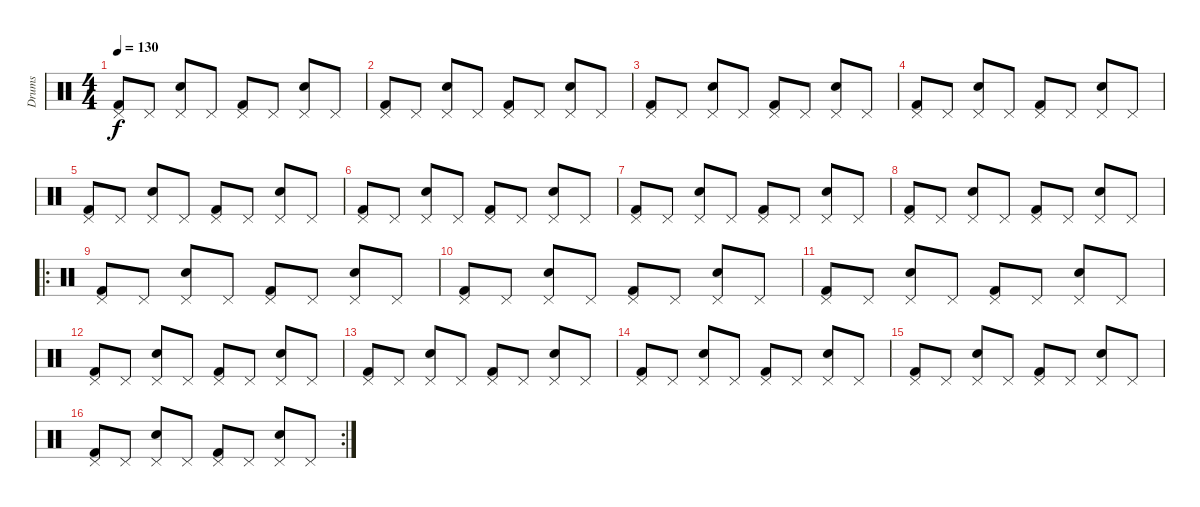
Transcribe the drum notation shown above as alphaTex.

\track ("Drums" "Drums") {instrument percussion}
\staff {score}
\articulation defaults
\ts (4 4)
\tempo 130
\clef neutral
\ks c
("Pedal Hi-Hat (hit)" "Kick (hit) 2").8{dy f} "Pedal Hi-Hat (hit)".8 ("Pedal Hi-Hat (hit)" "Snare (hit) 2").8 "Pedal Hi-Hat (hit)".8 ("Pedal Hi-Hat (hit)" "Kick (hit) 2").8 "Pedal Hi-Hat (hit)".8 ("Pedal Hi-Hat (hit)" "Snare (hit) 2").8 "Pedal Hi-Hat (hit)".8 |
("Pedal Hi-Hat (hit)" "Kick (hit) 2").8 "Pedal Hi-Hat (hit)".8 ("Pedal Hi-Hat (hit)" "Snare (hit) 2").8 "Pedal Hi-Hat (hit)".8 ("Pedal Hi-Hat (hit)" "Kick (hit) 2").8 "Pedal Hi-Hat (hit)".8 ("Pedal Hi-Hat (hit)" "Snare (hit) 2").8 "Pedal Hi-Hat (hit)".8 |
("Pedal Hi-Hat (hit)" "Kick (hit) 2").8 "Pedal Hi-Hat (hit)".8 ("Pedal Hi-Hat (hit)" "Snare (hit) 2").8 "Pedal Hi-Hat (hit)".8 ("Pedal Hi-Hat (hit)" "Kick (hit) 2").8 "Pedal Hi-Hat (hit)".8 ("Pedal Hi-Hat (hit)" "Snare (hit) 2").8 "Pedal Hi-Hat (hit)".8 |
("Pedal Hi-Hat (hit)" "Kick (hit) 2").8 "Pedal Hi-Hat (hit)".8 ("Pedal Hi-Hat (hit)" "Snare (hit) 2").8 "Pedal Hi-Hat (hit)".8 ("Pedal Hi-Hat (hit)" "Kick (hit) 2").8 "Pedal Hi-Hat (hit)".8 ("Pedal Hi-Hat (hit)" "Snare (hit) 2").8 "Pedal Hi-Hat (hit)".8 |
("Pedal Hi-Hat (hit)" "Kick (hit) 2").8 "Pedal Hi-Hat (hit)".8 ("Pedal Hi-Hat (hit)" "Snare (hit) 2").8 "Pedal Hi-Hat (hit)".8 ("Pedal Hi-Hat (hit)" "Kick (hit) 2").8 "Pedal Hi-Hat (hit)".8 ("Pedal Hi-Hat (hit)" "Snare (hit) 2").8 "Pedal Hi-Hat (hit)".8 |
("Pedal Hi-Hat (hit)" "Kick (hit) 2").8 "Pedal Hi-Hat (hit)".8 ("Pedal Hi-Hat (hit)" "Snare (hit) 2").8 "Pedal Hi-Hat (hit)".8 ("Pedal Hi-Hat (hit)" "Kick (hit) 2").8 "Pedal Hi-Hat (hit)".8 ("Pedal Hi-Hat (hit)" "Snare (hit) 2").8 "Pedal Hi-Hat (hit)".8 |
("Pedal Hi-Hat (hit)" "Kick (hit) 2").8 "Pedal Hi-Hat (hit)".8 ("Pedal Hi-Hat (hit)" "Snare (hit) 2").8 "Pedal Hi-Hat (hit)".8 ("Pedal Hi-Hat (hit)" "Kick (hit) 2").8 "Pedal Hi-Hat (hit)".8 ("Pedal Hi-Hat (hit)" "Snare (hit) 2").8 "Pedal Hi-Hat (hit)".8 |
("Pedal Hi-Hat (hit)" "Kick (hit) 2").8 "Pedal Hi-Hat (hit)".8 ("Pedal Hi-Hat (hit)" "Snare (hit) 2").8 "Pedal Hi-Hat (hit)".8 ("Pedal Hi-Hat (hit)" "Kick (hit) 2").8 "Pedal Hi-Hat (hit)".8 ("Pedal Hi-Hat (hit)" "Snare (hit) 2").8 "Pedal Hi-Hat (hit)".8 |
\ro
("Pedal Hi-Hat (hit)" "Kick (hit) 2").8 "Pedal Hi-Hat (hit)".8 ("Pedal Hi-Hat (hit)" "Snare (hit) 2").8 "Pedal Hi-Hat (hit)".8 ("Pedal Hi-Hat (hit)" "Kick (hit) 2").8 "Pedal Hi-Hat (hit)".8 ("Pedal Hi-Hat (hit)" "Snare (hit) 2").8 "Pedal Hi-Hat (hit)".8 |
("Pedal Hi-Hat (hit)" "Kick (hit) 2").8 "Pedal Hi-Hat (hit)".8 ("Pedal Hi-Hat (hit)" "Snare (hit) 2").8 "Pedal Hi-Hat (hit)".8 ("Pedal Hi-Hat (hit)" "Kick (hit) 2").8 "Pedal Hi-Hat (hit)".8 ("Pedal Hi-Hat (hit)" "Snare (hit) 2").8 "Pedal Hi-Hat (hit)".8 |
("Pedal Hi-Hat (hit)" "Kick (hit) 2").8 "Pedal Hi-Hat (hit)".8 ("Pedal Hi-Hat (hit)" "Snare (hit) 2").8 "Pedal Hi-Hat (hit)".8 ("Pedal Hi-Hat (hit)" "Kick (hit) 2").8 "Pedal Hi-Hat (hit)".8 ("Pedal Hi-Hat (hit)" "Snare (hit) 2").8 "Pedal Hi-Hat (hit)".8 |
("Pedal Hi-Hat (hit)" "Kick (hit) 2").8 "Pedal Hi-Hat (hit)".8 ("Pedal Hi-Hat (hit)" "Snare (hit) 2").8 "Pedal Hi-Hat (hit)".8 ("Pedal Hi-Hat (hit)" "Kick (hit) 2").8 "Pedal Hi-Hat (hit)".8 ("Pedal Hi-Hat (hit)" "Snare (hit) 2").8 "Pedal Hi-Hat (hit)".8 |
("Pedal Hi-Hat (hit)" "Kick (hit) 2").8 "Pedal Hi-Hat (hit)".8 ("Pedal Hi-Hat (hit)" "Snare (hit) 2").8 "Pedal Hi-Hat (hit)".8 ("Pedal Hi-Hat (hit)" "Kick (hit) 2").8 "Pedal Hi-Hat (hit)".8 ("Pedal Hi-Hat (hit)" "Snare (hit) 2").8 "Pedal Hi-Hat (hit)".8 |
("Pedal Hi-Hat (hit)" "Kick (hit) 2").8 "Pedal Hi-Hat (hit)".8 ("Pedal Hi-Hat (hit)" "Snare (hit) 2").8 "Pedal Hi-Hat (hit)".8 ("Pedal Hi-Hat (hit)" "Kick (hit) 2").8 "Pedal Hi-Hat (hit)".8 ("Pedal Hi-Hat (hit)" "Snare (hit) 2").8 "Pedal Hi-Hat (hit)".8 |
("Pedal Hi-Hat (hit)" "Kick (hit) 2").8 "Pedal Hi-Hat (hit)".8 ("Pedal Hi-Hat (hit)" "Snare (hit) 2").8 "Pedal Hi-Hat (hit)".8 ("Pedal Hi-Hat (hit)" "Kick (hit) 2").8 "Pedal Hi-Hat (hit)".8 ("Pedal Hi-Hat (hit)" "Snare (hit) 2").8 "Pedal Hi-Hat (hit)".8 |
\rc 2
("Pedal Hi-Hat (hit)" "Kick (hit) 2").8 "Pedal Hi-Hat (hit)".8 ("Pedal Hi-Hat (hit)" "Snare (hit) 2").8 "Pedal Hi-Hat (hit)".8 ("Pedal Hi-Hat (hit)" "Kick (hit) 2").8 "Pedal Hi-Hat (hit)".8 ("Pedal Hi-Hat (hit)" "Snare (hit) 2").8 "Pedal Hi-Hat (hit)".8
